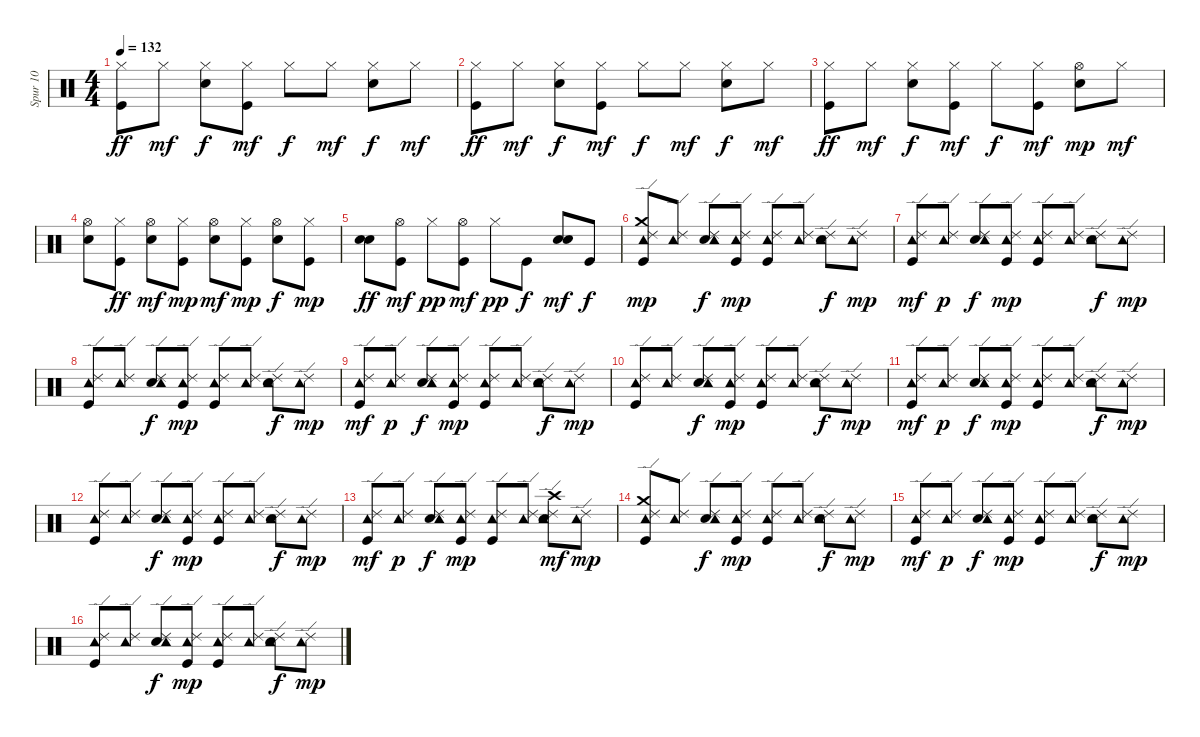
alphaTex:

\track ("Spur 10" "Spur 10") {instrument percussion}
\staff {score}
\articulation defaults
\ts (4 4)
\tempo 132
\clef neutral
\ks c
("Hi-Hat (closed)" "Kick (hit)").8{dy ff} "Hi-Hat (closed)".8{dy mf} ("Electric Snare (hit)" "Hi-Hat (closed)").8{dy f} ("Kick (hit)" "Hi-Hat (closed)").8{dy mf} "Hi-Hat (closed)".8{dy f} "Hi-Hat (closed)".8{dy mf} ("Hi-Hat (closed)" "Electric Snare (hit)").8{dy f} "Hi-Hat (closed)".8{dy mf} |
("Hi-Hat (closed)" "Kick (hit)").8{dy ff} "Hi-Hat (closed)".8{dy mf} ("Electric Snare (hit)" "Hi-Hat (closed)").8{dy f} ("Hi-Hat (closed)" "Kick (hit)").8{dy mf} "Hi-Hat (closed)".8{dy f} "Hi-Hat (closed)".8{dy mf} ("Electric Snare (hit)" "Hi-Hat (closed)").8{dy f} "Hi-Hat (closed)".8{dy mf} |
("Kick (hit)" "Hi-Hat (closed)").8{dy ff} "Hi-Hat (closed)".8{dy mf} ("Hi-Hat (closed)" "Electric Snare (hit)").8{dy f} ("Kick (hit)" "Hi-Hat (closed)").8{dy mf} "Hi-Hat (closed)".8{dy f} ("Kick (hit)" "Hi-Hat (closed)").8{dy mf} ("Electric Snare (hit)" "Hi-Hat (open)").8{dy mp} "Hi-Hat (closed)".8{dy mf} |
("Electric Snare (hit)" "Hi-Hat (open)").8 ("Hi-Hat (closed)" "Kick (hit)").8{dy ff} ("Hi-Hat (open)" "Electric Snare (hit)").8{dy mf} ("Hi-Hat (closed)" "Kick (hit)").8{dy mp} ("Hi-Hat (open)" "Electric Snare (hit)").8{dy mf} ("Hi-Hat (closed)" "Kick (hit)").8{dy mp} ("Hi-Hat (open)" "Electric Snare (hit)").8{dy f} ("Hi-Hat (closed)" "Kick (hit)").8{dy mp} |
("Electric Snare (hit)" "Electric Snare (hit)").8{dy ff} ("Hi-Hat (open)" "Kick (hit)").8{dy mf} "Hi-Hat (closed)".8{dy pp} ("Hi-Hat (open)" "Kick (hit)").8{dy mf} "Hi-Hat (closed)".8{dy pp} "Kick (hit)".8{dy f} ("Electric Snare (hit)" "Electric Snare (hit)").8{dy mf} "Kick (hit)".8{dy f} |
("Crash medium (hit)" "Kick (hit)" "Ride (edge) 2" "Tambourine (hit)").8{dy mp} ("Ride (edge) 2" "Tambourine (hit)").8 ("Electric Snare (hit)" "Ride (edge) 2" "Tambourine (hit)").8{dy f} ("Kick (hit)" "Ride (edge) 2" "Tambourine (hit)").8{dy mp} ("Kick (hit)" "Ride (edge) 2" "Tambourine (hit)").8 ("Ride (edge) 2" "Tambourine (hit)").8 ("Electric Snare (hit)" "Ride (edge) 2" "Tambourine (hit)").8{dy f} ("Ride (edge) 2" "Tambourine (hit)").8{dy mp} |
("Kick (hit)" "Ride (edge) 2" "Tambourine (hit)").8{dy mf} ("Ride (edge) 2" "Tambourine (hit)").8{dy p} ("Electric Snare (hit)" "Ride (edge) 2" "Tambourine (hit)").8{dy f} ("Kick (hit)" "Ride (edge) 2" "Tambourine (hit)").8{dy mp} ("Kick (hit)" "Ride (edge) 2" "Tambourine (hit)").8 ("Ride (edge) 2" "Tambourine (hit)").8 ("Electric Snare (hit)" "Ride (edge) 2" "Tambourine (hit)").8{dy f} ("Ride (edge) 2" "Tambourine (hit)").8{dy mp} |
("Kick (hit)" "Ride (edge) 2" "Tambourine (hit)").8 ("Ride (edge) 2" "Tambourine (hit)").8 ("Electric Snare (hit)" "Ride (edge) 2" "Tambourine (hit)").8{dy f} ("Kick (hit)" "Ride (edge) 2" "Tambourine (hit)").8{dy mp} ("Kick (hit)" "Ride (edge) 2" "Tambourine (hit)").8 ("Ride (edge) 2" "Tambourine (hit)").8 ("Electric Snare (hit)" "Ride (edge) 2" "Tambourine (hit)").8{dy f} ("Ride (edge) 2" "Tambourine (hit)").8{dy mp} |
("Kick (hit)" "Ride (edge) 2" "Tambourine (hit)").8{dy mf} ("Ride (edge) 2" "Tambourine (hit)").8{dy p} ("Electric Snare (hit)" "Ride (edge) 2" "Tambourine (hit)").8{dy f} ("Kick (hit)" "Ride (edge) 2" "Tambourine (hit)").8{dy mp} ("Kick (hit)" "Ride (edge) 2" "Tambourine (hit)").8 ("Ride (edge) 2" "Tambourine (hit)").8 ("Electric Snare (hit)" "Ride (edge) 2" "Tambourine (hit)").8{dy f} ("Ride (edge) 2" "Tambourine (hit)").8{dy mp} |
("Kick (hit)" "Ride (edge) 2" "Tambourine (hit)").8 ("Ride (edge) 2" "Tambourine (hit)").8 ("Electric Snare (hit)" "Ride (edge) 2" "Tambourine (hit)").8{dy f} ("Kick (hit)" "Ride (edge) 2" "Tambourine (hit)").8{dy mp} ("Kick (hit)" "Ride (edge) 2" "Tambourine (hit)").8 ("Ride (edge) 2" "Tambourine (hit)").8 ("Electric Snare (hit)" "Ride (edge) 2" "Tambourine (hit)").8{dy f} ("Ride (edge) 2" "Tambourine (hit)").8{dy mp} |
("Kick (hit)" "Ride (edge) 2" "Tambourine (hit)").8{dy mf} ("Ride (edge) 2" "Tambourine (hit)").8{dy p} ("Electric Snare (hit)" "Ride (edge) 2" "Tambourine (hit)").8{dy f} ("Kick (hit)" "Ride (edge) 2" "Tambourine (hit)").8{dy mp} ("Kick (hit)" "Ride (edge) 2" "Tambourine (hit)").8 ("Ride (edge) 2" "Tambourine (hit)").8 ("Electric Snare (hit)" "Ride (edge) 2" "Tambourine (hit)").8{dy f} ("Ride (edge) 2" "Tambourine (hit)").8{dy mp} |
("Kick (hit)" "Ride (edge) 2" "Tambourine (hit)").8 ("Ride (edge) 2" "Tambourine (hit)").8 ("Electric Snare (hit)" "Ride (edge) 2" "Tambourine (hit)").8{dy f} ("Kick (hit)" "Ride (edge) 2" "Tambourine (hit)").8{dy mp} ("Kick (hit)" "Ride (edge) 2" "Tambourine (hit)").8 ("Ride (edge) 2" "Tambourine (hit)").8 ("Electric Snare (hit)" "Ride (edge) 2" "Tambourine (hit)").8{dy f} ("Ride (edge) 2" "Tambourine (hit)").8{dy mp} |
("Kick (hit)" "Ride (edge) 2" "Tambourine (hit)").8{dy mf} ("Ride (edge) 2" "Tambourine (hit)").8{dy p} ("Electric Snare (hit)" "Ride (edge) 2" "Tambourine (hit)").8{dy f} ("Kick (hit)" "Ride (edge) 2" "Tambourine (hit)").8{dy mp} ("Kick (hit)" "Ride (edge) 2" "Tambourine (hit)").8 ("Ride (edge) 2" "Tambourine (hit)").8 ("Electric Snare (hit)" "Ride (edge) 2" "Crash high (hit)" "Tambourine (hit)").8{dy mf} ("Ride (edge) 2" "Tambourine (hit)").8{dy mp} |
("Crash medium (hit)" "Ride (edge) 2" "Kick (hit)" "Tambourine (hit)").8 ("Ride (edge) 2" "Tambourine (hit)").8 ("Electric Snare (hit)" "Ride (edge) 2" "Tambourine (hit)").8{dy f} ("Kick (hit)" "Ride (edge) 2" "Tambourine (hit)").8{dy mp} ("Kick (hit)" "Ride (edge) 2" "Tambourine (hit)").8 ("Ride (edge) 2" "Tambourine (hit)").8 ("Electric Snare (hit)" "Ride (edge) 2" "Tambourine (hit)").8{dy f} ("Ride (edge) 2" "Tambourine (hit)").8{dy mp} |
("Ride (edge) 2" "Kick (hit)" "Tambourine (hit)").8{dy mf} ("Ride (edge) 2" "Tambourine (hit)").8{dy p} ("Electric Snare (hit)" "Ride (edge) 2" "Tambourine (hit)").8{dy f} ("Ride (edge) 2" "Kick (hit)" "Tambourine (hit)").8{dy mp} ("Ride (edge) 2" "Kick (hit)" "Tambourine (hit)").8 ("Ride (edge) 2" "Tambourine (hit)").8 ("Electric Snare (hit)" "Ride (edge) 2" "Tambourine (hit)").8{dy f} ("Ride (edge) 2" "Tambourine (hit)").8{dy mp} |
("Kick (hit)" "Ride (edge) 2" "Tambourine (hit)").8 ("Ride (edge) 2" "Tambourine (hit)").8 ("Electric Snare (hit)" "Ride (edge) 2" "Tambourine (hit)").8{dy f} ("Kick (hit)" "Ride (edge) 2" "Tambourine (hit)").8{dy mp} ("Kick (hit)" "Ride (edge) 2" "Tambourine (hit)").8 ("Ride (edge) 2" "Tambourine (hit)").8 ("Electric Snare (hit)" "Ride (edge) 2" "Tambourine (hit)").8{dy f} ("Ride (edge) 2" "Tambourine (hit)").8{dy mp}
